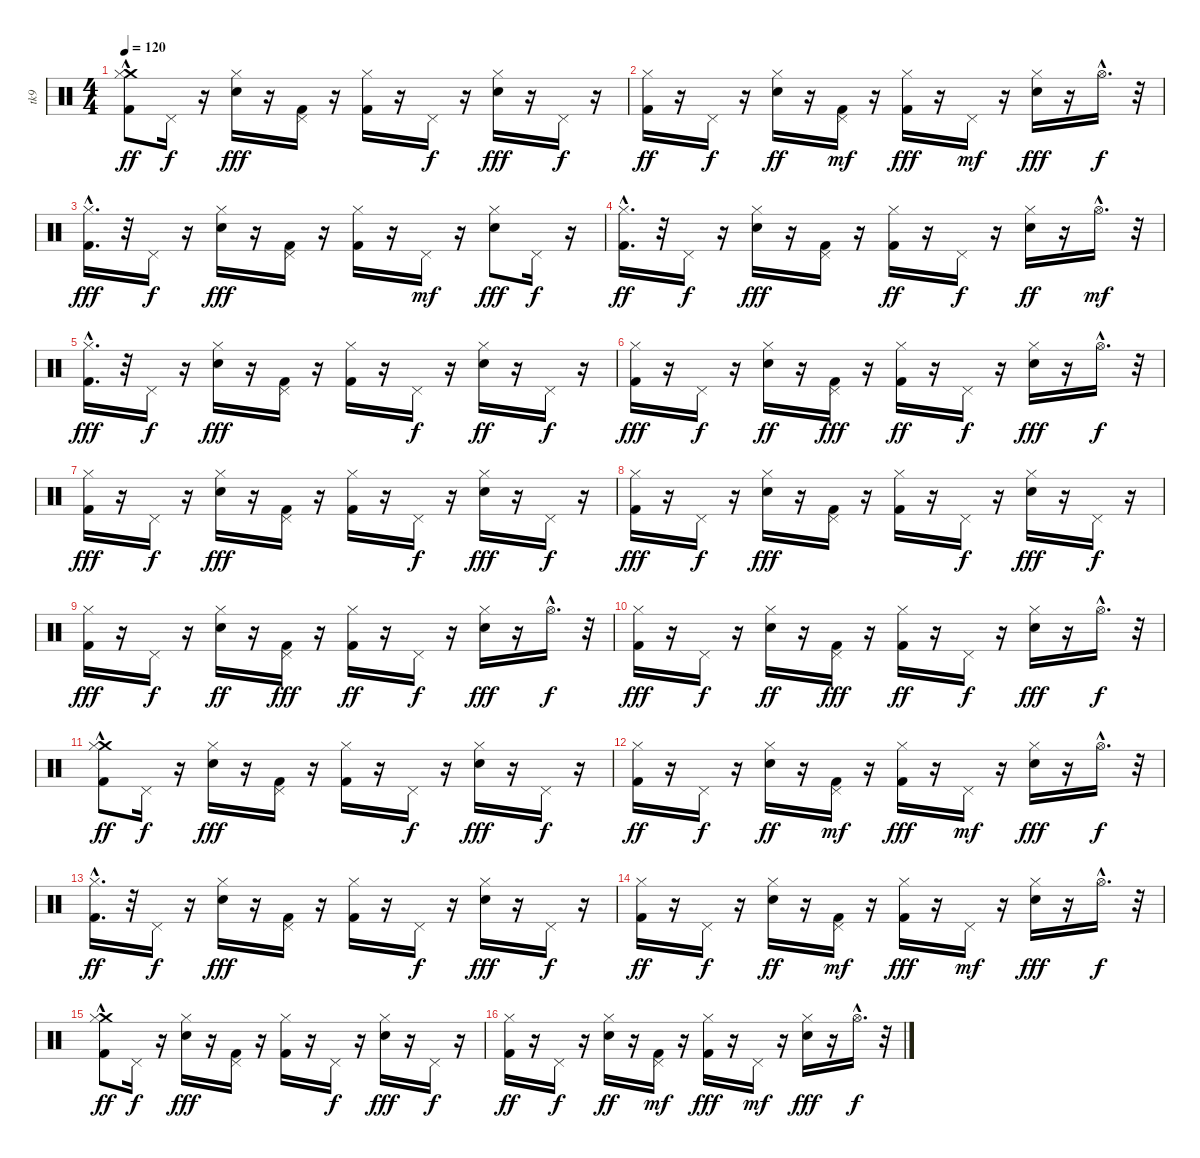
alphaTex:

\track ("tk9" "tk9") {instrument percussion}
\staff {score}
\articulation defaults
\ts (4 4)
\tempo 120
\clef neutral
\ks c
("Kick (hit) 2"{hac} "Crash medium (hit)" "Hi-Hat (closed)").8{dy ff} "Pedal Hi-Hat (hit)".16{dy f} r.16 ("Hi-Hat (closed)" "Snare (hit) 2").16{dy fff} r.16 ("Pedal Hi-Hat (hit)" "Kick (hit) 2").16 r.16 ("Hi-Hat (closed)" "Kick (hit) 2").16 r.16 "Pedal Hi-Hat (hit)".16{dy f} r.16 ("Hi-Hat (closed)" "Snare (hit) 2").16{dy fff} r.16 "Pedal Hi-Hat (hit)".16{dy f} r.16 |
("Kick (hit) 2" "Hi-Hat (closed)").16{dy ff} r.16 "Pedal Hi-Hat (hit)".16{dy f} r.16 ("Snare (hit) 2" "Hi-Hat (closed)").16{dy ff} r.16 ("Kick (hit) 2" "Pedal Hi-Hat (hit)").16{dy mf} r.16 ("Hi-Hat (closed)" "Kick (hit) 2").16{dy fff} r.16 "Pedal Hi-Hat (hit)".16{dy mf} r.16 ("Hi-Hat (closed)" "Snare (hit) 2").16{dy fff} r.16 "Hi-Hat (open)"{hac}.16{d dy f} r.32 |
("Hi-Hat (closed)"{hac} "Kick (hit) 2").16{d dy fff} r.32 "Pedal Hi-Hat (hit)".16{dy f} r.16 ("Hi-Hat (closed)" "Snare (hit) 2").16{dy fff} r.16 ("Pedal Hi-Hat (hit)" "Kick (hit) 2").16 r.16 ("Hi-Hat (closed)" "Kick (hit) 2").16 r.16 "Pedal Hi-Hat (hit)".16{dy mf} r.16 ("Hi-Hat (closed)" "Snare (hit) 2").8{dy fff} "Pedal Hi-Hat (hit)".16{dy f} r.16 |
("Kick (hit) 2"{hac} "Hi-Hat (closed)"{hac}).16{d dy ff} r.32 "Pedal Hi-Hat (hit)".16{dy f} r.16 ("Hi-Hat (closed)" "Snare (hit) 2").16{dy fff} r.16 ("Pedal Hi-Hat (hit)" "Kick (hit) 2").16 r.16 ("Kick (hit) 2" "Hi-Hat (closed)").16{dy ff} r.16 "Pedal Hi-Hat (hit)".16{dy f} r.16 ("Snare (hit) 2" "Hi-Hat (closed)").16{dy ff} r.16 "Hi-Hat (open)"{hac}.16{d dy mf} r.32 |
("Hi-Hat (closed)"{hac} "Kick (hit) 2"{hac}).16{d dy fff} r.32 "Pedal Hi-Hat (hit)".16{dy f} r.16 ("Hi-Hat (closed)" "Snare (hit) 2").16{dy fff} r.16 ("Pedal Hi-Hat (hit)" "Kick (hit) 2").16 r.16 ("Hi-Hat (closed)" "Kick (hit) 2").16 r.16 "Pedal Hi-Hat (hit)".16{dy f} r.16 ("Snare (hit) 2" "Hi-Hat (closed)").16{dy ff} r.16 "Pedal Hi-Hat (hit)".16{dy f} r.16 |
("Hi-Hat (closed)" "Kick (hit) 2").16{dy fff} r.16 "Pedal Hi-Hat (hit)".16{dy f} r.16 ("Snare (hit) 2" "Hi-Hat (closed)").16{dy ff} r.16 ("Kick (hit) 2" "Pedal Hi-Hat (hit)").16{dy fff} r.16 ("Kick (hit) 2" "Hi-Hat (closed)").16{dy ff} r.16 "Pedal Hi-Hat (hit)".16{dy f} r.16 ("Snare (hit) 2" "Hi-Hat (closed)").16{dy fff} r.16 "Hi-Hat (open)"{hac}.16{d dy f} r.32 |
("Hi-Hat (closed)" "Kick (hit) 2").16{dy fff} r.16 "Pedal Hi-Hat (hit)".16{dy f} r.16 ("Hi-Hat (closed)" "Snare (hit) 2").16{dy fff} r.16 ("Pedal Hi-Hat (hit)" "Kick (hit) 2").16 r.16 ("Hi-Hat (closed)" "Kick (hit) 2").16 r.16 "Pedal Hi-Hat (hit)".16{dy f} r.16 ("Hi-Hat (closed)" "Snare (hit) 2").16{dy fff} r.16 "Pedal Hi-Hat (hit)".16{dy f} r.16 |
("Hi-Hat (closed)" "Kick (hit) 2").16{dy fff} r.16 "Pedal Hi-Hat (hit)".16{dy f} r.16 ("Hi-Hat (closed)" "Snare (hit) 2").16{dy fff} r.16 ("Pedal Hi-Hat (hit)" "Kick (hit) 2").16 r.16 ("Hi-Hat (closed)" "Kick (hit) 2").16 r.16 "Pedal Hi-Hat (hit)".16{dy f} r.16 ("Hi-Hat (closed)" "Snare (hit) 2").16{dy fff} r.16 "Pedal Hi-Hat (hit)".16{dy f} r.16 |
("Hi-Hat (closed)" "Kick (hit) 2").16{dy fff} r.16 "Pedal Hi-Hat (hit)".16{dy f} r.16 ("Snare (hit) 2" "Hi-Hat (closed)").16{dy ff} r.16 ("Kick (hit) 2" "Pedal Hi-Hat (hit)").16{dy fff} r.16 ("Kick (hit) 2" "Hi-Hat (closed)").16{dy ff} r.16 "Pedal Hi-Hat (hit)".16{dy f} r.16 ("Snare (hit) 2" "Hi-Hat (closed)").16{dy fff} r.16 "Hi-Hat (open)"{hac}.16{d dy f} r.32 |
("Hi-Hat (closed)" "Kick (hit) 2").16{dy fff} r.16 "Pedal Hi-Hat (hit)".16{dy f} r.16 ("Snare (hit) 2" "Hi-Hat (closed)").16{dy ff} r.16 ("Kick (hit) 2" "Pedal Hi-Hat (hit)").16{dy fff} r.16 ("Kick (hit) 2" "Hi-Hat (closed)").16{dy ff} r.16 "Pedal Hi-Hat (hit)".16{dy f} r.16 ("Snare (hit) 2" "Hi-Hat (closed)").16{dy fff} r.16 "Hi-Hat (open)"{hac}.16{d dy f} r.32 |
("Kick (hit) 2"{hac} "Crash medium (hit)" "Hi-Hat (closed)").8{dy ff} "Pedal Hi-Hat (hit)".16{dy f} r.16 ("Hi-Hat (closed)" "Snare (hit) 2").16{dy fff} r.16 ("Pedal Hi-Hat (hit)" "Kick (hit) 2").16 r.16 ("Hi-Hat (closed)" "Kick (hit) 2").16 r.16 "Pedal Hi-Hat (hit)".16{dy f} r.16 ("Hi-Hat (closed)" "Snare (hit) 2").16{dy fff} r.16 "Pedal Hi-Hat (hit)".16{dy f} r.16 |
("Kick (hit) 2" "Hi-Hat (closed)").16{dy ff} r.16 "Pedal Hi-Hat (hit)".16{dy f} r.16 ("Snare (hit) 2" "Hi-Hat (closed)").16{dy ff} r.16 ("Kick (hit) 2" "Pedal Hi-Hat (hit)").16{dy mf} r.16 ("Hi-Hat (closed)" "Kick (hit) 2").16{dy fff} r.16 "Pedal Hi-Hat (hit)".16{dy mf} r.16 ("Hi-Hat (closed)" "Snare (hit) 2").16{dy fff} r.16 "Hi-Hat (open)"{hac}.16{d dy f} r.32 |
("Kick (hit) 2"{hac} "Hi-Hat (closed)").16{d dy ff} r.32 "Pedal Hi-Hat (hit)".16{dy f} r.16 ("Hi-Hat (closed)" "Snare (hit) 2").16{dy fff} r.16 ("Pedal Hi-Hat (hit)" "Kick (hit) 2").16 r.16 ("Hi-Hat (closed)" "Kick (hit) 2").16 r.16 "Pedal Hi-Hat (hit)".16{dy f} r.16 ("Hi-Hat (closed)" "Snare (hit) 2").16{dy fff} r.16 "Pedal Hi-Hat (hit)".16{dy f} r.16 |
("Kick (hit) 2" "Hi-Hat (closed)").16{dy ff} r.16 "Pedal Hi-Hat (hit)".16{dy f} r.16 ("Snare (hit) 2" "Hi-Hat (closed)").16{dy ff} r.16 ("Kick (hit) 2" "Pedal Hi-Hat (hit)").16{dy mf} r.16 ("Hi-Hat (closed)" "Kick (hit) 2").16{dy fff} r.16 "Pedal Hi-Hat (hit)".16{dy mf} r.16 ("Hi-Hat (closed)" "Snare (hit) 2").16{dy fff} r.16 "Hi-Hat (open)"{hac}.16{d dy f} r.32 |
("Kick (hit) 2"{hac} "Crash medium (hit)" "Hi-Hat (closed)").8{dy ff} "Pedal Hi-Hat (hit)".16{dy f} r.16 ("Hi-Hat (closed)" "Snare (hit) 2").16{dy fff} r.16 ("Pedal Hi-Hat (hit)" "Kick (hit) 2").16 r.16 ("Hi-Hat (closed)" "Kick (hit) 2").16 r.16 "Pedal Hi-Hat (hit)".16{dy f} r.16 ("Hi-Hat (closed)" "Snare (hit) 2").16{dy fff} r.16 "Pedal Hi-Hat (hit)".16{dy f} r.16 |
("Kick (hit) 2" "Hi-Hat (closed)").16{dy ff} r.16 "Pedal Hi-Hat (hit)".16{dy f} r.16 ("Snare (hit) 2" "Hi-Hat (closed)").16{dy ff} r.16 ("Kick (hit) 2" "Pedal Hi-Hat (hit)").16{dy mf} r.16 ("Hi-Hat (closed)" "Kick (hit) 2").16{dy fff} r.16 "Pedal Hi-Hat (hit)".16{dy mf} r.16 ("Hi-Hat (closed)" "Snare (hit) 2").16{dy fff} r.16 "Hi-Hat (open)"{hac}.16{d dy f} r.32
